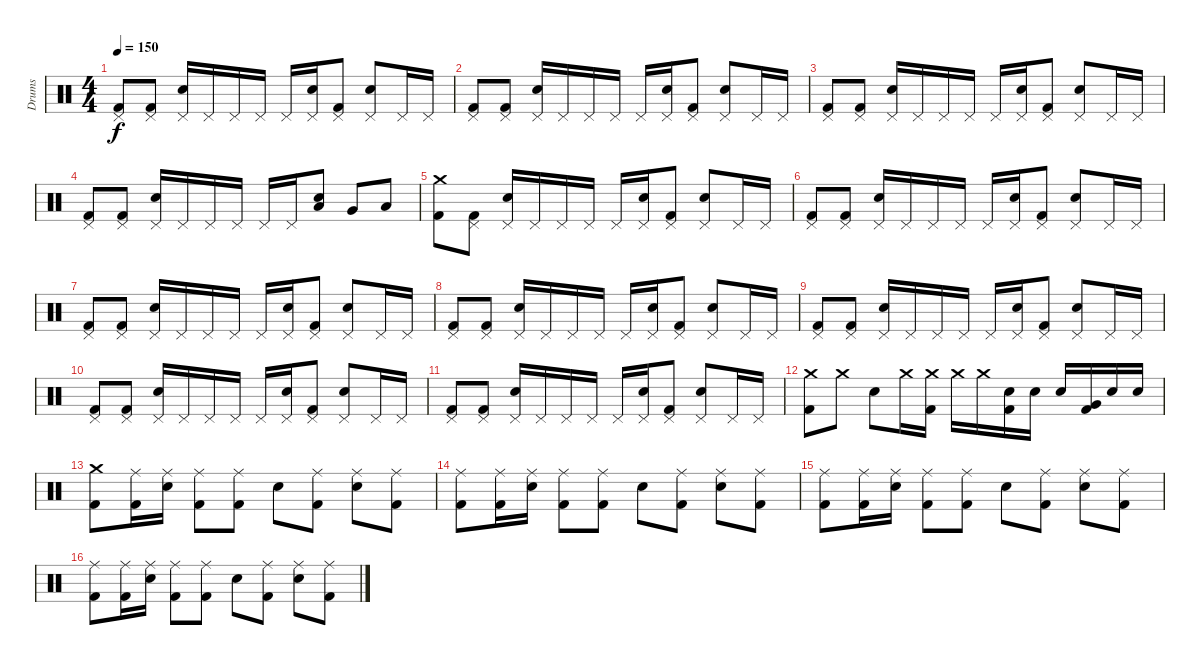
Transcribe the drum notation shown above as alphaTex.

\track ("Drums" "Drums") {instrument percussion}
\staff {score}
\articulation defaults
\ts (4 4)
\tempo 150
\clef neutral
\ks c
("Pedal Hi-Hat (hit)" "Kick (hit) 2").8{dy f} ("Pedal Hi-Hat (hit)" "Kick (hit) 2").8 ("Pedal Hi-Hat (hit)" "Electric Snare (hit)").16 "Pedal Hi-Hat (hit)".16 "Pedal Hi-Hat (hit)".16 "Pedal Hi-Hat (hit)".16 "Pedal Hi-Hat (hit)".16 ("Pedal Hi-Hat (hit)" "Electric Snare (hit)").16 ("Pedal Hi-Hat (hit)" "Kick (hit) 2").8 ("Pedal Hi-Hat (hit)" "Electric Snare (hit)").8 "Pedal Hi-Hat (hit)".16 "Pedal Hi-Hat (hit)".16 |
("Pedal Hi-Hat (hit)" "Kick (hit) 2").8 ("Pedal Hi-Hat (hit)" "Kick (hit) 2").8 ("Pedal Hi-Hat (hit)" "Electric Snare (hit)").16 "Pedal Hi-Hat (hit)".16 "Pedal Hi-Hat (hit)".16 "Pedal Hi-Hat (hit)".16 "Pedal Hi-Hat (hit)".16 ("Pedal Hi-Hat (hit)" "Electric Snare (hit)").16 ("Pedal Hi-Hat (hit)" "Kick (hit) 2").8 ("Pedal Hi-Hat (hit)" "Electric Snare (hit)").8 "Pedal Hi-Hat (hit)".16 "Pedal Hi-Hat (hit)".16 |
("Pedal Hi-Hat (hit)" "Kick (hit) 2").8 ("Pedal Hi-Hat (hit)" "Kick (hit) 2").8 ("Pedal Hi-Hat (hit)" "Electric Snare (hit)").16 "Pedal Hi-Hat (hit)".16 "Pedal Hi-Hat (hit)".16 "Pedal Hi-Hat (hit)".16 "Pedal Hi-Hat (hit)".16 ("Pedal Hi-Hat (hit)" "Electric Snare (hit)").16 ("Pedal Hi-Hat (hit)" "Kick (hit) 2").8 ("Pedal Hi-Hat (hit)" "Electric Snare (hit)").8 "Pedal Hi-Hat (hit)".16 "Pedal Hi-Hat (hit)".16 |
("Pedal Hi-Hat (hit)" "Kick (hit) 2").8 ("Pedal Hi-Hat (hit)" "Kick (hit) 2").8 ("Pedal Hi-Hat (hit)" "Electric Snare (hit)").16 "Pedal Hi-Hat (hit)".16 "Pedal Hi-Hat (hit)".16 "Pedal Hi-Hat (hit)".16 "Pedal Hi-Hat (hit)".16 "Pedal Hi-Hat (hit)".16 ("Electric Snare (hit)" "Low Floor Tom (hit)").8 "Very Low Tom (hit)".8 "Low Floor Tom (hit)".8 |
("Crash medium (hit)" "Kick (hit) 2").8 ("Pedal Hi-Hat (hit)" "Kick (hit) 2").8 ("Pedal Hi-Hat (hit)" "Electric Snare (hit)").16 "Pedal Hi-Hat (hit)".16 "Pedal Hi-Hat (hit)".16 "Pedal Hi-Hat (hit)".16 "Pedal Hi-Hat (hit)".16 ("Pedal Hi-Hat (hit)" "Electric Snare (hit)").16 ("Pedal Hi-Hat (hit)" "Kick (hit) 2").8 ("Pedal Hi-Hat (hit)" "Electric Snare (hit)").8 "Pedal Hi-Hat (hit)".16 "Pedal Hi-Hat (hit)".16 |
("Pedal Hi-Hat (hit)" "Kick (hit) 2").8 ("Pedal Hi-Hat (hit)" "Kick (hit) 2").8 ("Pedal Hi-Hat (hit)" "Electric Snare (hit)").16 "Pedal Hi-Hat (hit)".16 "Pedal Hi-Hat (hit)".16 "Pedal Hi-Hat (hit)".16 "Pedal Hi-Hat (hit)".16 ("Pedal Hi-Hat (hit)" "Electric Snare (hit)").16 ("Pedal Hi-Hat (hit)" "Kick (hit) 2").8 ("Pedal Hi-Hat (hit)" "Electric Snare (hit)").8 "Pedal Hi-Hat (hit)".16 "Pedal Hi-Hat (hit)".16 |
("Pedal Hi-Hat (hit)" "Kick (hit) 2").8 ("Pedal Hi-Hat (hit)" "Kick (hit) 2").8 ("Pedal Hi-Hat (hit)" "Electric Snare (hit)").16 "Pedal Hi-Hat (hit)".16 "Pedal Hi-Hat (hit)".16 "Pedal Hi-Hat (hit)".16 "Pedal Hi-Hat (hit)".16 ("Pedal Hi-Hat (hit)" "Electric Snare (hit)").16 ("Pedal Hi-Hat (hit)" "Kick (hit) 2").8 ("Pedal Hi-Hat (hit)" "Electric Snare (hit)").8 "Pedal Hi-Hat (hit)".16 "Pedal Hi-Hat (hit)".16 |
("Pedal Hi-Hat (hit)" "Kick (hit) 2").8 ("Pedal Hi-Hat (hit)" "Kick (hit) 2").8 ("Pedal Hi-Hat (hit)" "Electric Snare (hit)").16 "Pedal Hi-Hat (hit)".16 "Pedal Hi-Hat (hit)".16 "Pedal Hi-Hat (hit)".16 "Pedal Hi-Hat (hit)".16 ("Pedal Hi-Hat (hit)" "Electric Snare (hit)").16 ("Pedal Hi-Hat (hit)" "Kick (hit) 2").8 ("Pedal Hi-Hat (hit)" "Electric Snare (hit)").8 "Pedal Hi-Hat (hit)".16 "Pedal Hi-Hat (hit)".16 |
("Pedal Hi-Hat (hit)" "Kick (hit) 2").8 ("Pedal Hi-Hat (hit)" "Kick (hit) 2").8 ("Pedal Hi-Hat (hit)" "Electric Snare (hit)").16 "Pedal Hi-Hat (hit)".16 "Pedal Hi-Hat (hit)".16 "Pedal Hi-Hat (hit)".16 "Pedal Hi-Hat (hit)".16 ("Pedal Hi-Hat (hit)" "Electric Snare (hit)").16 ("Pedal Hi-Hat (hit)" "Kick (hit) 2").8 ("Pedal Hi-Hat (hit)" "Electric Snare (hit)").8 "Pedal Hi-Hat (hit)".16 "Pedal Hi-Hat (hit)".16 |
("Pedal Hi-Hat (hit)" "Kick (hit) 2").8 ("Pedal Hi-Hat (hit)" "Kick (hit) 2").8 ("Pedal Hi-Hat (hit)" "Electric Snare (hit)").16 "Pedal Hi-Hat (hit)".16 "Pedal Hi-Hat (hit)".16 "Pedal Hi-Hat (hit)".16 "Pedal Hi-Hat (hit)".16 ("Pedal Hi-Hat (hit)" "Electric Snare (hit)").16 ("Pedal Hi-Hat (hit)" "Kick (hit) 2").8 ("Pedal Hi-Hat (hit)" "Electric Snare (hit)").8 "Pedal Hi-Hat (hit)".16 "Pedal Hi-Hat (hit)".16 |
("Pedal Hi-Hat (hit)" "Kick (hit) 2").8 ("Pedal Hi-Hat (hit)" "Kick (hit) 2").8 ("Pedal Hi-Hat (hit)" "Electric Snare (hit)").16 "Pedal Hi-Hat (hit)".16 "Pedal Hi-Hat (hit)".16 "Pedal Hi-Hat (hit)".16 "Pedal Hi-Hat (hit)".16 ("Pedal Hi-Hat (hit)" "Electric Snare (hit)").16 ("Pedal Hi-Hat (hit)" "Kick (hit) 2").8 ("Pedal Hi-Hat (hit)" "Electric Snare (hit)").8 "Pedal Hi-Hat (hit)".16 "Pedal Hi-Hat (hit)".16 |
("Crash medium (hit)" "Kick (hit) 2").8 "Crash medium (hit)".8 "Electric Snare (hit)".8 "Crash medium (hit)".16 ("Crash medium (hit)" "Kick (hit) 2").16 "Crash medium (hit)".16 "Crash medium (hit)".16 ("Electric Snare (hit)" "Kick (hit) 2").16 "Electric Snare (hit)".16 "Electric Snare (hit)".16 ("Very Low Tom (hit)" "Kick (hit) 2").16 "Electric Snare (hit)".16 "Electric Snare (hit)".16 |
("Crash medium (hit)" "Kick (hit) 2").8 ("Ride (middle)" "Kick (hit) 2").16 ("Ride (middle)" "Electric Snare (hit)").16 ("Ride (middle)" "Kick (hit) 2").8 ("Ride (middle)" "Kick (hit) 2").8 "Electric Snare (hit)".8 ("Ride (middle)" "Kick (hit) 2").8 ("Ride (middle)" "Electric Snare (hit)").8 ("Ride (middle)" "Kick (hit) 2").8 |
("Ride (middle)" "Kick (hit) 2").8 ("Ride (middle)" "Kick (hit) 2").16 ("Ride (middle)" "Electric Snare (hit)").16 ("Ride (middle)" "Kick (hit) 2").8 ("Ride (middle)" "Kick (hit) 2").8 "Electric Snare (hit)".8 ("Ride (middle)" "Kick (hit) 2").8 ("Ride (middle)" "Electric Snare (hit)").8 ("Ride (middle)" "Kick (hit) 2").8 |
("Ride (middle)" "Kick (hit) 2").8 ("Ride (middle)" "Kick (hit) 2").16 ("Ride (middle)" "Electric Snare (hit)").16 ("Ride (middle)" "Kick (hit) 2").8 ("Ride (middle)" "Kick (hit) 2").8 "Electric Snare (hit)".8 ("Ride (middle)" "Kick (hit) 2").8 ("Ride (middle)" "Electric Snare (hit)").8 ("Ride (middle)" "Kick (hit) 2").8 |
("Ride (middle)" "Kick (hit) 2").8 ("Ride (middle)" "Kick (hit) 2").16 ("Ride (middle)" "Electric Snare (hit)").16 ("Ride (middle)" "Kick (hit) 2").8 ("Ride (middle)" "Kick (hit) 2").8 "Electric Snare (hit)".8 ("Ride (middle)" "Kick (hit) 2").8 ("Ride (middle)" "Electric Snare (hit)").8 ("Ride (middle)" "Kick (hit) 2").8
